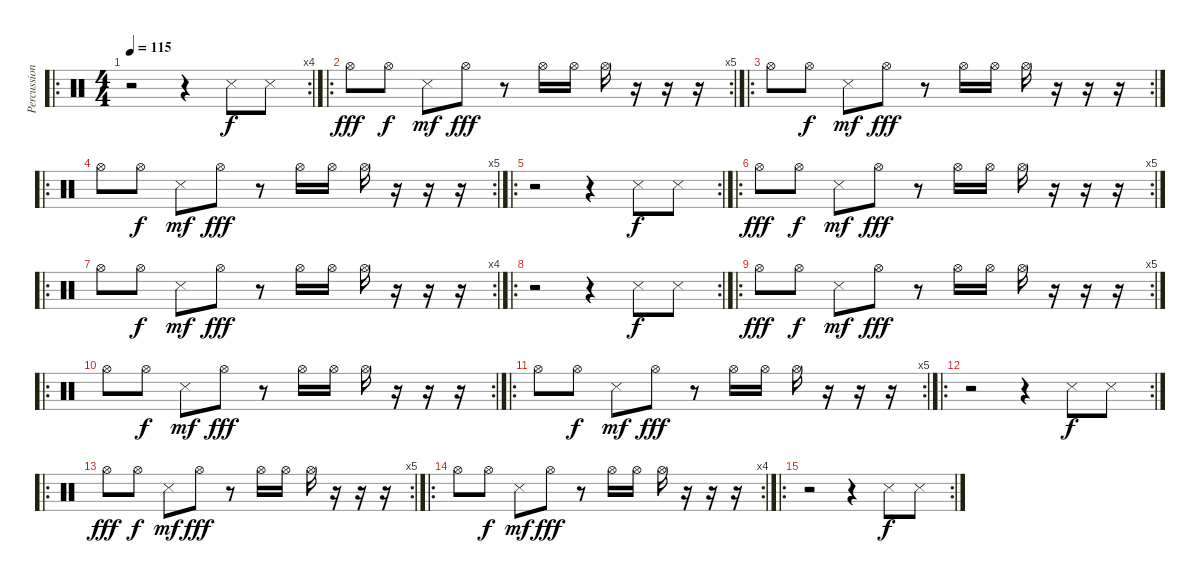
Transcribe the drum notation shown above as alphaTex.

\track ("Percussions" "Percussion") {instrument percussion}
\staff {score}
\articulation defaults
\ro
\rc 4
\ts (4 4)
\tempo 115
\clef neutral
\ks c
r.2{dy f} r.4 "Snare (side stick) 3".8 "Snare (side stick) 3".8 |
\ro
\rc 5 "Hi-Hat (open)".8{dy fff} "Hi-Hat (open)".8{dy f} "Snare (side stick) 3".8{dy mf} "Hi-Hat (open)".8{dy fff}
r.8 "Hi-Hat (open)".16 "Hi-Hat (open)".16 "Hi-Hat (open)".16 r.16 r.16 r.16 |
\ro
\rc 2 "Hi-Hat (open)".8 "Hi-Hat (open)".8{dy f} "Snare (side stick) 3".8{dy mf} "Hi-Hat (open)".8{dy fff}
r.8 "Hi-Hat (open)".16 "Hi-Hat (open)".16 "Hi-Hat (open)".16 r.16 r.16 r.16 |
\ro
\rc 5 "Hi-Hat (open)".8 "Hi-Hat (open)".8{dy f} "Snare (side stick) 3".8{dy mf} "Hi-Hat (open)".8{dy fff}
r.8 "Hi-Hat (open)".16 "Hi-Hat (open)".16 "Hi-Hat (open)".16 r.16 r.16 r.16 |
\ro
\rc 2
r.2 r.4 "Snare (side stick) 3".8{dy f} "Snare (side stick) 3".8 |
\ro
\rc 5 "Hi-Hat (open)".8{dy fff} "Hi-Hat (open)".8{dy f} "Snare (side stick) 3".8{dy mf} "Hi-Hat (open)".8{dy fff}
r.8 "Hi-Hat (open)".16 "Hi-Hat (open)".16 "Hi-Hat (open)".16 r.16 r.16 r.16 |
\ro
\rc 4 "Hi-Hat (open)".8 "Hi-Hat (open)".8{dy f} "Snare (side stick) 3".8{dy mf} "Hi-Hat (open)".8{dy fff}
r.8 "Hi-Hat (open)".16 "Hi-Hat (open)".16 "Hi-Hat (open)".16 r.16 r.16 r.16 |
\ro
\rc 2
r.2 r.4 "Snare (side stick) 3".8{dy f} "Snare (side stick) 3".8 |
\ro
\rc 5 "Hi-Hat (open)".8{dy fff} "Hi-Hat (open)".8{dy f} "Snare (side stick) 3".8{dy mf} "Hi-Hat (open)".8{dy fff}
r.8 "Hi-Hat (open)".16 "Hi-Hat (open)".16 "Hi-Hat (open)".16 r.16 r.16 r.16 |
\ro
\rc 2 "Hi-Hat (open)".8 "Hi-Hat (open)".8{dy f} "Snare (side stick) 3".8{dy mf} "Hi-Hat (open)".8{dy fff}
r.8 "Hi-Hat (open)".16 "Hi-Hat (open)".16 "Hi-Hat (open)".16 r.16 r.16 r.16 |
\ro
\rc 5 "Hi-Hat (open)".8 "Hi-Hat (open)".8{dy f} "Snare (side stick) 3".8{dy mf} "Hi-Hat (open)".8{dy fff}
r.8 "Hi-Hat (open)".16 "Hi-Hat (open)".16 "Hi-Hat (open)".16 r.16 r.16 r.16 |
\ro
\rc 2
r.2 r.4 "Snare (side stick) 3".8{dy f} "Snare (side stick) 3".8 |
\ro
\rc 5 "Hi-Hat (open)".8{dy fff} "Hi-Hat (open)".8{dy f} "Snare (side stick) 3".8{dy mf} "Hi-Hat (open)".8{dy fff}
r.8 "Hi-Hat (open)".16 "Hi-Hat (open)".16 "Hi-Hat (open)".16 r.16 r.16 r.16 |
\ro
\rc 4 "Hi-Hat (open)".8 "Hi-Hat (open)".8{dy f} "Snare (side stick) 3".8{dy mf} "Hi-Hat (open)".8{dy fff}
r.8 "Hi-Hat (open)".16 "Hi-Hat (open)".16 "Hi-Hat (open)".16 r.16 r.16 r.16 |
\ro
\rc 2
r.2 r.4 "Snare (side stick) 3".8{dy f} "Snare (side stick) 3".8
